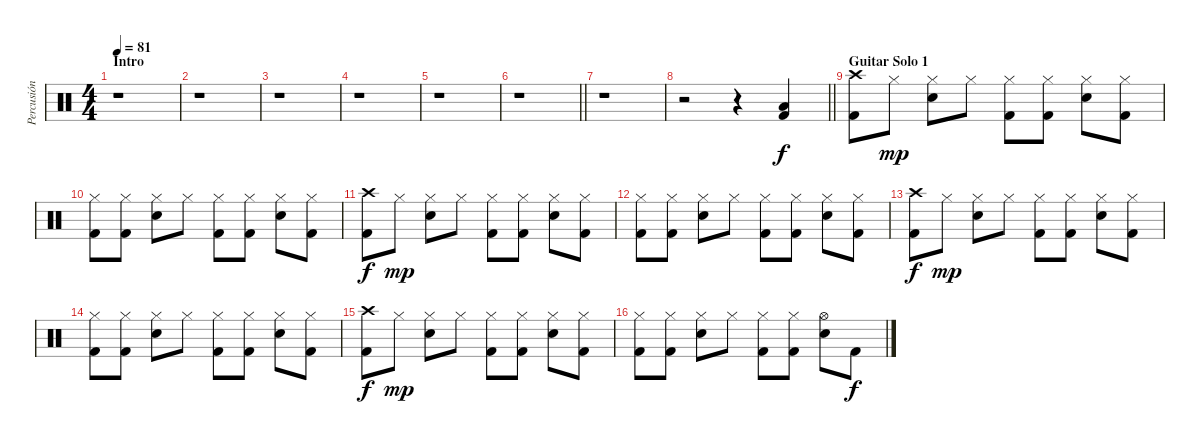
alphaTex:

\track ("Percusión" "Percusión") {instrument percussion}
\staff {score}
\articulation defaults
\ts (4 4)
\section ("" "Intro")
\tempo 81
\clef neutral
\ks c
r.1{dy f} |
r.1 |
r.1 |
r.1 |
r.1 |
\barLineRight lightlight
r.1 |
r.1 |
\barLineRight lightlight
r.2 r.4 ("Low Floor Tom (hit)" "Kick (hit) 2").4 |
\section ("" "Guitar Solo 1")
("Crash high (hit)" "Kick (hit) 2").8 "Hi-Hat (closed)".8{dy mp} ("Hi-Hat (closed)" "Snare (hit) 2").8 "Hi-Hat (closed)".8 ("Hi-Hat (closed)" "Kick (hit) 2").8 ("Hi-Hat (closed)" "Kick (hit) 2").8 ("Hi-Hat (closed)" "Snare (hit) 2").8 ("Hi-Hat (closed)" "Kick (hit) 2").8 |
("Hi-Hat (closed)" "Kick (hit) 2").8 ("Hi-Hat (closed)" "Kick (hit) 2").8 ("Hi-Hat (closed)" "Snare (hit) 2").8 "Hi-Hat (closed)".8 ("Hi-Hat (closed)" "Kick (hit) 2").8 ("Hi-Hat (closed)" "Kick (hit) 2").8 ("Hi-Hat (closed)" "Snare (hit) 2").8 ("Hi-Hat (closed)" "Kick (hit) 2").8 |
("Crash high (hit)" "Kick (hit) 2").8{dy f} "Hi-Hat (closed)".8{dy mp} ("Hi-Hat (closed)" "Snare (hit) 2").8 "Hi-Hat (closed)".8 ("Hi-Hat (closed)" "Kick (hit) 2").8 ("Hi-Hat (closed)" "Kick (hit) 2").8 ("Hi-Hat (closed)" "Snare (hit) 2").8 ("Hi-Hat (closed)" "Kick (hit) 2").8 |
("Hi-Hat (closed)" "Kick (hit) 2").8 ("Hi-Hat (closed)" "Kick (hit) 2").8 ("Hi-Hat (closed)" "Snare (hit) 2").8 "Hi-Hat (closed)".8 ("Hi-Hat (closed)" "Kick (hit) 2").8 ("Hi-Hat (closed)" "Kick (hit) 2").8 ("Hi-Hat (closed)" "Snare (hit) 2").8 ("Hi-Hat (closed)" "Kick (hit) 2").8 |
("Crash high (hit)" "Kick (hit) 2").8{dy f} "Hi-Hat (closed)".8{dy mp} ("Hi-Hat (closed)" "Snare (hit) 2").8 "Hi-Hat (closed)".8 ("Hi-Hat (closed)" "Kick (hit) 2").8 ("Hi-Hat (closed)" "Kick (hit) 2").8 ("Hi-Hat (closed)" "Snare (hit) 2").8 ("Hi-Hat (closed)" "Kick (hit) 2").8 |
("Hi-Hat (closed)" "Kick (hit) 2").8 ("Hi-Hat (closed)" "Kick (hit) 2").8 ("Hi-Hat (closed)" "Snare (hit) 2").8 "Hi-Hat (closed)".8 ("Hi-Hat (closed)" "Kick (hit) 2").8 ("Hi-Hat (closed)" "Kick (hit) 2").8 ("Hi-Hat (closed)" "Snare (hit) 2").8 ("Hi-Hat (closed)" "Kick (hit) 2").8 |
("Crash high (hit)" "Kick (hit) 2").8{dy f} "Hi-Hat (closed)".8{dy mp} ("Hi-Hat (closed)" "Snare (hit) 2").8 "Hi-Hat (closed)".8 ("Hi-Hat (closed)" "Kick (hit) 2").8 ("Hi-Hat (closed)" "Kick (hit) 2").8 ("Hi-Hat (closed)" "Snare (hit) 2").8 ("Hi-Hat (closed)" "Kick (hit) 2").8 |
("Hi-Hat (closed)" "Kick (hit) 2").8 ("Hi-Hat (closed)" "Kick (hit) 2").8 ("Hi-Hat (closed)" "Snare (hit) 2").8 "Hi-Hat (closed)".8 ("Hi-Hat (closed)" "Kick (hit) 2").8 ("Hi-Hat (closed)" "Kick (hit) 2").8 ("Hi-Hat (open)" "Snare (hit) 2").8 "Kick (hit) 2".8{dy f}
